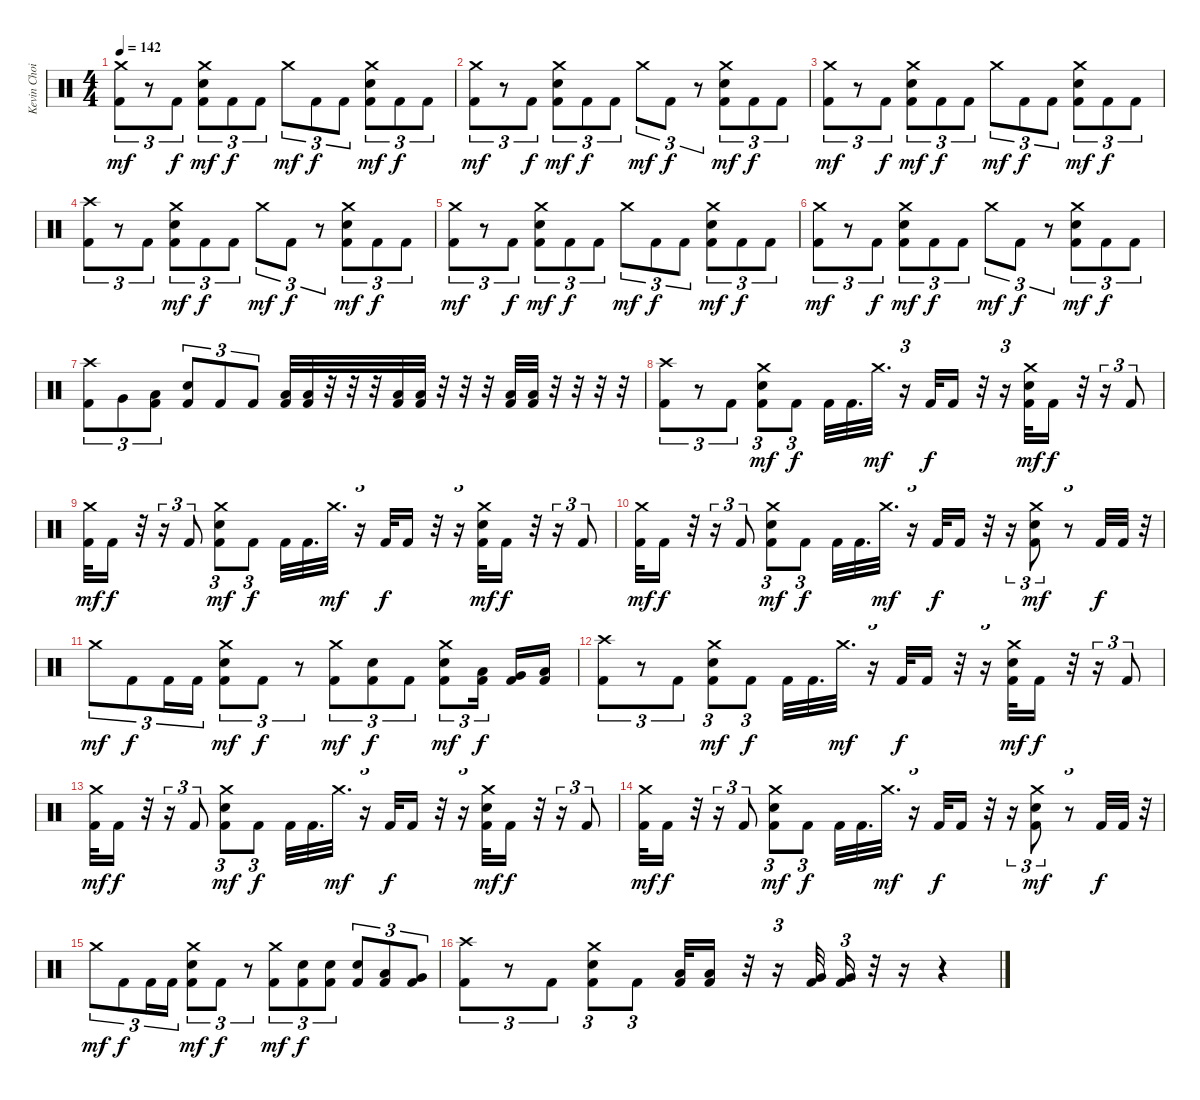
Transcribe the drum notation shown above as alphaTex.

\track ("Kevin Choiral" "Kevin Choi") {instrument percussion}
\staff
\articulation defaults
\ts (4 4)
\tempo 142
\clef neutral
\ks c
("Crash medium (hit)" "Kick (hit) 2").8{tu (3 2) dy mf} r.8{tu (3 2)} "Kick (hit) 2".8{tu (3 2) dy f} ("Crash medium (hit)" "Electric Snare (hit)" "Kick (hit) 2").8{tu (3 2) dy mf} "Kick (hit) 2".8{tu (3 2) dy f} "Kick (hit) 2".8{tu (3 2)} "Crash medium (hit)".8{tu (3 2) dy mf} "Kick (hit) 2".8{tu (3 2) dy f} "Kick (hit) 2".8{tu (3 2)} ("Crash medium (hit)" "Electric Snare (hit)" "Kick (hit) 2").8{tu (3 2) dy mf} "Kick (hit) 2".8{tu (3 2) dy f} "Kick (hit) 2".8{tu (3 2)} |
("Crash medium (hit)" "Kick (hit) 2").8{tu (3 2) dy mf} r.8{tu (3 2)} "Kick (hit) 2".8{tu (3 2) dy f} ("Crash medium (hit)" "Electric Snare (hit)" "Kick (hit) 2").8{tu (3 2) dy mf} "Kick (hit) 2".8{tu (3 2) dy f} "Kick (hit) 2".8{tu (3 2)} "Crash medium (hit)".8{tu (3 2) dy mf} "Kick (hit) 2".8{tu (3 2) dy f} r.8{tu (3 2)} ("Crash medium (hit)" "Electric Snare (hit)" "Kick (hit) 2").8{tu (3 2) dy mf} "Kick (hit) 2".8{tu (3 2) dy f} "Kick (hit) 2".8{tu (3 2)} |
("Crash medium (hit)" "Kick (hit) 2").8{tu (3 2) dy mf} r.8{tu (3 2)} "Kick (hit) 2".8{tu (3 2) dy f} ("Crash medium (hit)" "Electric Snare (hit)" "Kick (hit) 2").8{tu (3 2) dy mf} "Kick (hit) 2".8{tu (3 2) dy f} "Kick (hit) 2".8{tu (3 2)} "Crash medium (hit)".8{tu (3 2) dy mf} "Kick (hit) 2".8{tu (3 2) dy f} "Kick (hit) 2".8{tu (3 2)} ("Crash medium (hit)" "Electric Snare (hit)" "Kick (hit) 2").8{tu (3 2) dy mf} "Kick (hit) 2".8{tu (3 2) dy f} "Kick (hit) 2".8{tu (3 2)} |
("Crash high (hit)" "Kick (hit) 2").8{tu (3 2)} r.8{tu (3 2)} "Kick (hit) 2".8{tu (3 2)} ("Crash medium (hit)" "Electric Snare (hit)" "Kick (hit) 2").8{tu (3 2) dy mf} "Kick (hit) 2".8{tu (3 2) dy f} "Kick (hit) 2".8{tu (3 2)} "Crash medium (hit)".8{tu (3 2) dy mf} "Kick (hit) 2".8{tu (3 2) dy f} r.8{tu (3 2)} ("Crash medium (hit)" "Electric Snare (hit)" "Kick (hit) 2").8{tu (3 2) dy mf} "Kick (hit) 2".8{tu (3 2) dy f} "Kick (hit) 2".8{tu (3 2)} |
("Crash medium (hit)" "Kick (hit) 2").8{tu (3 2) dy mf} r.8{tu (3 2)} "Kick (hit) 2".8{tu (3 2) dy f} ("Crash medium (hit)" "Electric Snare (hit)" "Kick (hit) 2").8{tu (3 2) dy mf} "Kick (hit) 2".8{tu (3 2) dy f} "Kick (hit) 2".8{tu (3 2)} "Crash medium (hit)".8{tu (3 2) dy mf} "Kick (hit) 2".8{tu (3 2) dy f} "Kick (hit) 2".8{tu (3 2)} ("Crash medium (hit)" "Electric Snare (hit)" "Kick (hit) 2").8{tu (3 2) dy mf} "Kick (hit) 2".8{tu (3 2) dy f} "Kick (hit) 2".8{tu (3 2)} |
("Crash medium (hit)" "Kick (hit) 2").8{tu (3 2) dy mf} r.8{tu (3 2)} "Kick (hit) 2".8{tu (3 2) dy f} ("Crash medium (hit)" "Electric Snare (hit)" "Kick (hit) 2").8{tu (3 2) dy mf} "Kick (hit) 2".8{tu (3 2) dy f} "Kick (hit) 2".8{tu (3 2)} "Crash medium (hit)".8{tu (3 2) dy mf} "Kick (hit) 2".8{tu (3 2) dy f} r.8{tu (3 2)} ("Crash medium (hit)" "Electric Snare (hit)" "Kick (hit) 2").8{tu (3 2) dy mf} "Kick (hit) 2".8{tu (3 2) dy f} "Kick (hit) 2".8{tu (3 2)} |
("Crash high (hit)" "Kick (hit) 2").8{tu (3 2)} "Very Low Tom (hit)".8{tu (3 2)} ("Low Floor Tom (hit)" "Kick (hit) 2").8{tu (3 2)} ("Electric Snare (hit)" "Kick (hit) 2").8{tu (3 2)} "Kick (hit) 2".8{tu (3 2)} "Kick (hit) 2".8{tu (3 2)} ("Low Tom (hit)" "Kick (hit) 2").32 ("Low Tom (hit)" "Kick (hit) 2").32 r.32 r.32 r.32 ("Low Tom (hit)" "Kick (hit) 2").32 ("Low Tom (hit)" "Kick (hit) 2").32 r.32 r.32 r.32 ("Low Tom (hit)" "Kick (hit) 2").32 ("Low Tom (hit)" "Kick (hit) 2").32 r.32 r.32 r.32 r.32 |
("Crash high (hit)" "Kick (hit) 2").8{tu (3 2)} r.8{tu (3 2)} "Kick (hit) 2".8{tu (3 2)} ("Crash medium (hit)" "Electric Snare (hit)" "Kick (hit) 2").8{tu (3 2) dy mf} "Kick (hit) 2".8{tu (3 2) dy f} "Kick (hit) 2".32 "Kick (hit) 2".32{d} "Crash medium (hit)".32{d dy mf} r.16{tu (3 2)} "Kick (hit) 2".32{dy f} "Kick (hit) 2".16 r.32 r.16{tu (3 2)} ("Crash medium (hit)" "Electric Snare (hit)" "Kick (hit) 2").32{dy mf} "Kick (hit) 2".16{dy f} r.32 r.16{tu (3 2)} "Kick (hit) 2".8{tu (3 2)} |
("Crash medium (hit)" "Kick (hit) 2").32{dy mf} "Kick (hit) 2".16{dy f} r.32 r.16{tu (3 2)} "Kick (hit) 2".8{tu (3 2)} ("Crash medium (hit)" "Electric Snare (hit)" "Kick (hit) 2").8{tu (3 2) dy mf} "Kick (hit) 2".8{tu (3 2) dy f} "Kick (hit) 2".32 "Kick (hit) 2".32{d} "Crash medium (hit)".32{d dy mf} r.16{tu (3 2)} "Kick (hit) 2".32{dy f} "Kick (hit) 2".16 r.32 r.16{tu (3 2)} ("Crash medium (hit)" "Electric Snare (hit)" "Kick (hit) 2").32{dy mf} "Kick (hit) 2".16{dy f} r.32 r.16{tu (3 2)} "Kick (hit) 2".8{tu (3 2)} |
("Crash medium (hit)" "Kick (hit) 2").32{dy mf} "Kick (hit) 2".16{dy f} r.32 r.16{tu (3 2)} "Kick (hit) 2".8{tu (3 2)} ("Crash medium (hit)" "Electric Snare (hit)" "Kick (hit) 2").8{tu (3 2) dy mf} "Kick (hit) 2".8{tu (3 2) dy f} "Kick (hit) 2".32 "Kick (hit) 2".32{d} "Crash medium (hit)".32{d dy mf} r.16{tu (3 2)} "Kick (hit) 2".32{dy f} "Kick (hit) 2".16 r.32 r.16{tu (3 2)} ("Crash medium (hit)" "Electric Snare (hit)" "Kick (hit) 2").8{tu (3 2) dy mf} r.8{tu (3 2)} "Kick (hit) 2".32{dy f} "Kick (hit) 2".32 r.32{tu (3 2)} |
"Crash medium (hit)".8{tu (3 2) dy mf} "Kick (hit) 2".8{tu (3 2) dy f} "Kick (hit) 2".16{tu (3 2)} "Kick (hit) 2".16{tu (3 2)} ("Crash medium (hit)" "Electric Snare (hit)" "Kick (hit) 2").8{tu (3 2) dy mf} "Kick (hit) 2".8{tu (3 2) dy f} r.8{tu (3 2)} ("Crash medium (hit)" "Kick (hit) 2").8{tu (3 2) dy mf} ("Electric Snare (hit)" "Kick (hit) 2").8{tu (3 2) dy f} "Kick (hit) 2".8{tu (3 2)} ("Crash medium (hit)" "Electric Snare (hit)" "Kick (hit) 2").8{tu (3 2) dy mf} ("Low Tom (hit)" "Kick (hit) 2").16{tu (3 2) dy f beam splitsecondary} ("Very Low Tom (hit)" "Kick (hit) 2").16 ("Low Floor Tom (hit)" "Kick (hit) 2").16 |
("Crash high (hit)" "Kick (hit) 2").8{tu (3 2)} r.8{tu (3 2)} "Kick (hit) 2".8{tu (3 2)} ("Crash medium (hit)" "Electric Snare (hit)" "Kick (hit) 2").8{tu (3 2) dy mf} "Kick (hit) 2".8{tu (3 2) dy f} "Kick (hit) 2".32 "Kick (hit) 2".32{d} "Crash medium (hit)".32{d dy mf} r.16{tu (3 2)} "Kick (hit) 2".32{dy f} "Kick (hit) 2".16 r.32 r.16{tu (3 2)} ("Crash medium (hit)" "Electric Snare (hit)" "Kick (hit) 2").32{dy mf} "Kick (hit) 2".16{dy f} r.32 r.16{tu (3 2)} "Kick (hit) 2".8{tu (3 2)} |
("Crash medium (hit)" "Kick (hit) 2").32{dy mf} "Kick (hit) 2".16{dy f} r.32 r.16{tu (3 2)} "Kick (hit) 2".8{tu (3 2)} ("Crash medium (hit)" "Electric Snare (hit)" "Kick (hit) 2").8{tu (3 2) dy mf} "Kick (hit) 2".8{tu (3 2) dy f} "Kick (hit) 2".32 "Kick (hit) 2".32{d} "Crash medium (hit)".32{d dy mf} r.16{tu (3 2)} "Kick (hit) 2".32{dy f} "Kick (hit) 2".16 r.32 r.16{tu (3 2)} ("Crash medium (hit)" "Electric Snare (hit)" "Kick (hit) 2").32{dy mf} "Kick (hit) 2".16{dy f} r.32 r.16{tu (3 2)} "Kick (hit) 2".8{tu (3 2)} |
("Crash medium (hit)" "Kick (hit) 2").32{dy mf} "Kick (hit) 2".16{dy f} r.32 r.16{tu (3 2)} "Kick (hit) 2".8{tu (3 2)} ("Crash medium (hit)" "Electric Snare (hit)" "Kick (hit) 2").8{tu (3 2) dy mf} "Kick (hit) 2".8{tu (3 2) dy f} "Kick (hit) 2".32 "Kick (hit) 2".32{d} "Crash medium (hit)".32{d dy mf} r.16{tu (3 2)} "Kick (hit) 2".32{dy f} "Kick (hit) 2".16 r.32 r.16{tu (3 2)} ("Crash medium (hit)" "Electric Snare (hit)" "Kick (hit) 2").8{tu (3 2) dy mf} r.8{tu (3 2)} "Kick (hit) 2".32{dy f} "Kick (hit) 2".32 r.32{tu (3 2)} |
"Crash medium (hit)".8{tu (3 2) dy mf} "Kick (hit) 2".8{tu (3 2) dy f} "Kick (hit) 2".16{tu (3 2)} "Kick (hit) 2".16{tu (3 2)} ("Crash medium (hit)" "Electric Snare (hit)" "Kick (hit) 2").8{tu (3 2) dy mf} "Kick (hit) 2".8{tu (3 2) dy f} r.8{tu (3 2)} ("Crash medium (hit)" "Kick (hit) 2").8{tu (3 2) dy mf} ("Electric Snare (hit)" "Kick (hit) 2").8{tu (3 2) dy f} ("Electric Snare (hit)" "Kick (hit) 2").8{tu (3 2)} ("Electric Snare (hit)" "Kick (hit) 2").8{tu (3 2)} ("Low Tom (hit)" "Kick (hit) 2").8{tu (3 2)} ("Very Low Tom (hit)" "Kick (hit) 2").8{tu (3 2)} |
("Crash high (hit)" "Kick (hit) 2").8{tu (3 2)} r.8{tu (3 2)} "Kick (hit) 2".8{tu (3 2)} ("Crash medium (hit)" "Electric Snare (hit)" "Kick (hit) 2").8{tu (3 2)} "Kick (hit) 2".8{tu (3 2)} ("Low Tom (hit)" "Kick (hit) 2").32 ("Low Tom (hit)" "Kick (hit) 2").16 r.32 r.16{tu (3 2)} ("Very Low Tom (hit)" "Kick (hit) 2").32 ("Very Low Tom (hit)" "Kick (hit) 2").16{tu (3 2)} r.32 r.16 r.4
